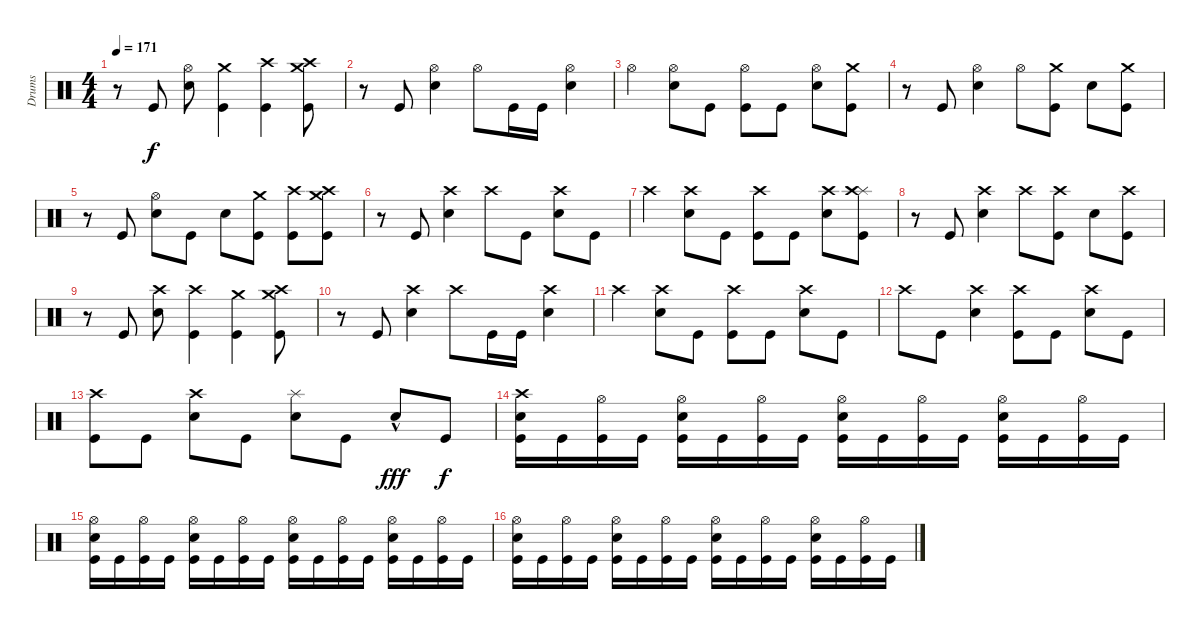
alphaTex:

\track ("Drums" "Drums") {instrument percussion}
\staff {score}
\articulation defaults
\ts (4 4)
\tempo 171
\clef neutral
\ks c
r.8{dy f} "Kick (hit)".8 ("Snare (hit) 2" "Hi-Hat (open)").8 ("Kick (hit)" "Crash medium (hit)").4 ("Crash high (hit)" "Kick (hit)").4 ("Crash high (hit)" "Kick (hit)" "Crash medium (hit)").8 |
r.8 "Kick (hit)".8 ("Snare (hit) 2" "Hi-Hat (open)").4 "Hi-Hat (open)".8 "Kick (hit)".16 "Kick (hit)".16 ("Snare (hit) 2" "Hi-Hat (open)").4 |
"Hi-Hat (open)".4 ("Snare (hit) 2" "Hi-Hat (open)").8 "Kick (hit)".8 ("Hi-Hat (open)" "Kick (hit)").8 "Kick (hit)".8 ("Snare (hit) 2" "Hi-Hat (open)").8 ("Kick (hit)" "Crash medium (hit)").8 |
r.8 "Kick (hit)".8 ("Snare (hit) 2" "Hi-Hat (open)").4 "Hi-Hat (open)".8 ("Kick (hit)" "Crash medium (hit)").8 "Snare (hit) 2".8 ("Kick (hit)" "Crash medium (hit)").8 |
r.8 "Kick (hit)".8 ("Snare (hit) 2" "Hi-Hat (open)").8 "Kick (hit)".8 "Snare (hit) 2".8 ("Kick (hit)" "Crash medium (hit)").8 ("Crash high (hit)" "Kick (hit)").8 ("Crash high (hit)" "Kick (hit)" "Crash medium (hit)").8 |
r.8 "Kick (hit)".8 ("Snare (hit) 2" "Crash high (hit)").4 "Crash high (hit)".8 "Kick (hit)".8 ("Snare (hit) 2" "Crash high (hit)").8 "Kick (hit)".8 |
"Crash high (hit)".4 ("Snare (hit) 2" "Crash high (hit)").8 "Kick (hit)".8 ("Kick (hit)" "Crash high (hit)").8 "Kick (hit)".8 ("Snare (hit) 2" "Crash high (hit)").8 ("Splash (hit)" "Kick (hit)" "Crash high (hit)").8 |
r.8 "Kick (hit)".8 ("Snare (hit) 2" "Crash high (hit)").4 "Crash high (hit)".8 ("Kick (hit)" "Crash high (hit)").8 "Snare (hit) 2".8 ("Kick (hit)" "Crash high (hit)").8 |
r.8 "Kick (hit)".8 ("Snare (hit) 2" "Crash high (hit)").8 ("Kick (hit)" "Crash high (hit)").4 ("Crash medium (hit)" "Kick (hit)").4 ("Crash medium (hit)" "Kick (hit)" "Crash high (hit)").8 |
r.8 "Kick (hit)".8 ("Snare (hit) 2" "Crash high (hit)").4 "Crash high (hit)".8 "Kick (hit)".16 "Kick (hit)".16 ("Snare (hit) 2" "Crash high (hit)").4 |
"Crash high (hit)".4 ("Snare (hit) 2" "Crash high (hit)").8 "Kick (hit)".8 ("Kick (hit)" "Crash high (hit)").8 "Kick (hit)".8 ("Snare (hit) 2" "Crash high (hit)").8 "Kick (hit)".8 |
"Crash high (hit)".8 "Kick (hit)".8 ("Snare (hit) 2" "Crash high (hit)").4 ("Kick (hit)" "Crash high (hit)").8 "Kick (hit)".8 ("Snare (hit) 2" "Crash high (hit)").8 "Kick (hit)".8 |
("Kick (hit)" "Crash high (hit)").8 "Kick (hit)".8 ("Snare (hit) 2" "Crash high (hit)").8 "Kick (hit)".8 ("Snare (hit) 2" "Splash (hit)").8 "Kick (hit)".8 "Snare (hit) 2"{hac}.8{dy fff} "Kick (hit)".8{dy f} |
("Snare (hit) 2" "Kick (hit)" "Crash high (hit)").16 "Kick (hit)".16 ("Hi-Hat (open)" "Kick (hit)").16 "Kick (hit)".16 ("Snare (hit) 2" "Hi-Hat (open)" "Kick (hit)").16 "Kick (hit)".16 ("Hi-Hat (open)" "Kick (hit)").16 "Kick (hit)".16 ("Snare (hit) 2" "Hi-Hat (open)" "Kick (hit)").16 "Kick (hit)".16 ("Hi-Hat (open)" "Kick (hit)").16 "Kick (hit)".16 ("Snare (hit) 2" "Hi-Hat (open)" "Kick (hit)").16 "Kick (hit)".16 ("Hi-Hat (open)" "Kick (hit)").16 "Kick (hit)".16 |
("Snare (hit) 2" "Hi-Hat (open)" "Kick (hit)").16 "Kick (hit)".16 ("Hi-Hat (open)" "Kick (hit)").16 "Kick (hit)".16 ("Snare (hit) 2" "Hi-Hat (open)" "Kick (hit)").16 "Kick (hit)".16 ("Hi-Hat (open)" "Kick (hit)").16 "Kick (hit)".16 ("Snare (hit) 2" "Hi-Hat (open)" "Kick (hit)").16 "Kick (hit)".16 ("Hi-Hat (open)" "Kick (hit)").16 "Kick (hit)".16 ("Snare (hit) 2" "Hi-Hat (open)" "Kick (hit)").16 "Kick (hit)".16 ("Hi-Hat (open)" "Kick (hit)").16 "Kick (hit)".16 |
("Snare (hit) 2" "Hi-Hat (open)" "Kick (hit)").16 "Kick (hit)".16 ("Hi-Hat (open)" "Kick (hit)").16 "Kick (hit)".16 ("Snare (hit) 2" "Hi-Hat (open)" "Kick (hit)").16 "Kick (hit)".16 ("Hi-Hat (open)" "Kick (hit)").16 "Kick (hit)".16 ("Snare (hit) 2" "Hi-Hat (open)" "Kick (hit)").16 "Kick (hit)".16 ("Hi-Hat (open)" "Kick (hit)").16 "Kick (hit)".16 ("Snare (hit) 2" "Hi-Hat (open)" "Kick (hit)").16 "Kick (hit)".16 ("Hi-Hat (open)" "Kick (hit)").16 "Kick (hit)".16
